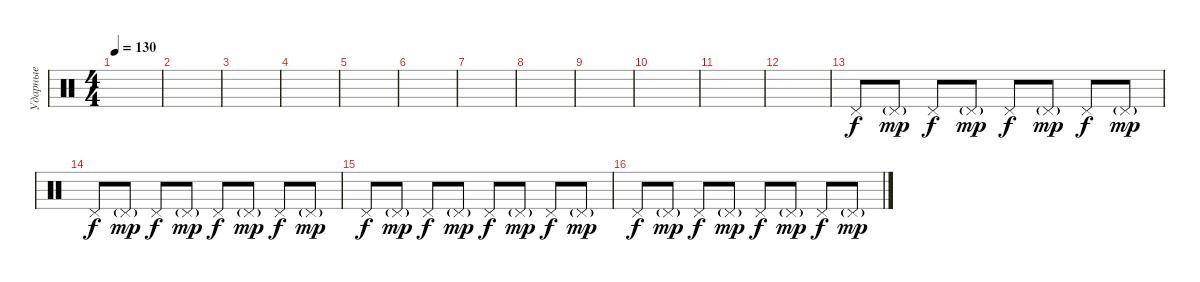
\track ("Ударные" "Ударные") {instrument percussion}
\staff {score}
\articulation defaults
\ts (4 4)
\tempo 130
\clef neutral
\ks c
|
|
|
|
|
|
|
|
|
|
|
|
"Pedal Hi-Hat (hit)".8{dy f} "Pedal Hi-Hat (hit)"{g}.8{dy mp} "Pedal Hi-Hat (hit)".8{dy f} "Pedal Hi-Hat (hit)"{g}.8{dy mp} "Pedal Hi-Hat (hit)".8{dy f} "Pedal Hi-Hat (hit)"{g}.8{dy mp} "Pedal Hi-Hat (hit)".8{dy f} "Pedal Hi-Hat (hit)"{g}.8{dy mp} |
"Pedal Hi-Hat (hit)".8{dy f} "Pedal Hi-Hat (hit)"{g}.8{dy mp} "Pedal Hi-Hat (hit)".8{dy f} "Pedal Hi-Hat (hit)"{g}.8{dy mp} "Pedal Hi-Hat (hit)".8{dy f} "Pedal Hi-Hat (hit)"{g}.8{dy mp} "Pedal Hi-Hat (hit)".8{dy f} "Pedal Hi-Hat (hit)"{g}.8{dy mp} |
"Pedal Hi-Hat (hit)".8{dy f} "Pedal Hi-Hat (hit)"{g}.8{dy mp} "Pedal Hi-Hat (hit)".8{dy f} "Pedal Hi-Hat (hit)"{g}.8{dy mp} "Pedal Hi-Hat (hit)".8{dy f} "Pedal Hi-Hat (hit)"{g}.8{dy mp} "Pedal Hi-Hat (hit)".8{dy f} "Pedal Hi-Hat (hit)"{g}.8{dy mp} |
"Pedal Hi-Hat (hit)".8{dy f} "Pedal Hi-Hat (hit)"{g}.8{dy mp} "Pedal Hi-Hat (hit)".8{dy f} "Pedal Hi-Hat (hit)"{g}.8{dy mp} "Pedal Hi-Hat (hit)".8{dy f} "Pedal Hi-Hat (hit)"{g}.8{dy mp} "Pedal Hi-Hat (hit)".8{dy f} "Pedal Hi-Hat (hit)"{g}.8{dy mp}
